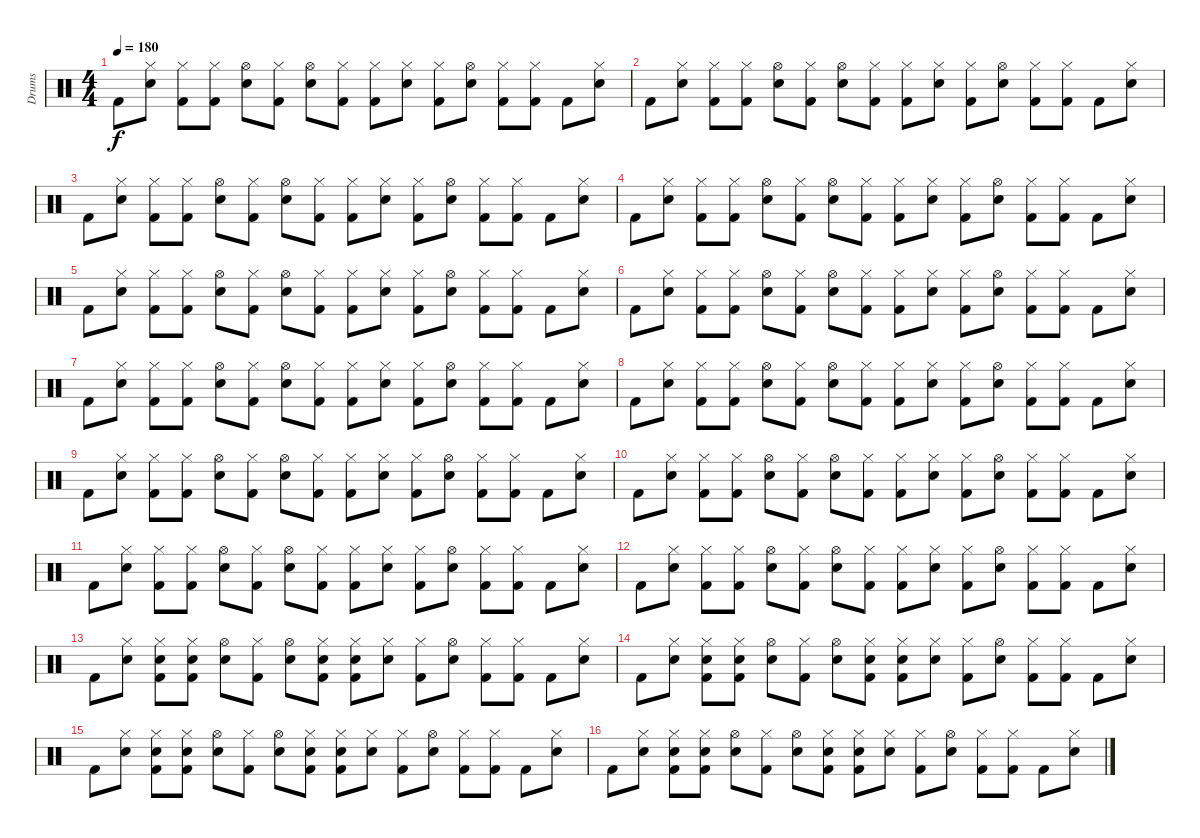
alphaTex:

\track ("Drums" "Drums") {instrument percussion}
\staff {score}
\articulation defaults
\ts (4 4)
\tempo 180
\clef neutral
\ks c "Kick (hit) 2".8{dy f}
("Electric Snare (hit)" "Hi-Hat (closed)").8 ("Kick (hit) 2" "Hi-Hat (closed)").8 ("Kick (hit) 2" "Hi-Hat (closed)").8 ("Electric Snare (hit)" "Hi-Hat (open)").8 ("Kick (hit) 2" "Hi-Hat (closed)").8 ("Electric Snare (hit)" "Hi-Hat (open)").8 ("Kick (hit) 2" "Hi-Hat (closed)").8 ("Kick (hit) 2" "Hi-Hat (closed)").8 ("Electric Snare (hit)" "Hi-Hat (closed)").8 ("Kick (hit) 2" "Hi-Hat (closed)").8 ("Electric Snare (hit)" "Hi-Hat (open)").8 ("Kick (hit) 2" "Hi-Hat (closed)").8 ("Kick (hit) 2" "Hi-Hat (closed)").8 "Kick (hit) 2".8 ("Electric Snare (hit)" "Hi-Hat (closed)").8 |
"Kick (hit) 2".8 ("Electric Snare (hit)" "Hi-Hat (closed)").8 ("Kick (hit) 2" "Hi-Hat (closed)").8 ("Kick (hit) 2" "Hi-Hat (closed)").8 ("Electric Snare (hit)" "Hi-Hat (open)").8 ("Kick (hit) 2" "Hi-Hat (closed)").8 ("Electric Snare (hit)" "Hi-Hat (open)").8 ("Kick (hit) 2" "Hi-Hat (closed)").8 ("Kick (hit) 2" "Hi-Hat (closed)").8 ("Electric Snare (hit)" "Hi-Hat (closed)").8 ("Kick (hit) 2" "Hi-Hat (closed)").8 ("Electric Snare (hit)" "Hi-Hat (open)").8 ("Kick (hit) 2" "Hi-Hat (closed)").8 ("Kick (hit) 2" "Hi-Hat (closed)").8 "Kick (hit) 2".8 ("Electric Snare (hit)" "Hi-Hat (closed)").8 |
"Kick (hit) 2".8 ("Electric Snare (hit)" "Hi-Hat (closed)").8 ("Kick (hit) 2" "Hi-Hat (closed)").8 ("Kick (hit) 2" "Hi-Hat (closed)").8 ("Electric Snare (hit)" "Hi-Hat (open)").8 ("Kick (hit) 2" "Hi-Hat (closed)").8 ("Electric Snare (hit)" "Hi-Hat (open)").8 ("Kick (hit) 2" "Hi-Hat (closed)").8 ("Kick (hit) 2" "Hi-Hat (closed)").8 ("Electric Snare (hit)" "Hi-Hat (closed)").8 ("Kick (hit) 2" "Hi-Hat (closed)").8 ("Electric Snare (hit)" "Hi-Hat (open)").8 ("Kick (hit) 2" "Hi-Hat (closed)").8 ("Kick (hit) 2" "Hi-Hat (closed)").8 "Kick (hit) 2".8 ("Electric Snare (hit)" "Hi-Hat (closed)").8 |
"Kick (hit) 2".8 ("Electric Snare (hit)" "Hi-Hat (closed)").8 ("Kick (hit) 2" "Hi-Hat (closed)").8 ("Kick (hit) 2" "Hi-Hat (closed)").8 ("Electric Snare (hit)" "Hi-Hat (open)").8 ("Kick (hit) 2" "Hi-Hat (closed)").8 ("Electric Snare (hit)" "Hi-Hat (open)").8 ("Kick (hit) 2" "Hi-Hat (closed)").8 ("Kick (hit) 2" "Hi-Hat (closed)").8 ("Electric Snare (hit)" "Hi-Hat (closed)").8 ("Kick (hit) 2" "Hi-Hat (closed)").8 ("Electric Snare (hit)" "Hi-Hat (open)").8 ("Kick (hit) 2" "Hi-Hat (closed)").8 ("Kick (hit) 2" "Hi-Hat (closed)").8 "Kick (hit) 2".8 ("Electric Snare (hit)" "Hi-Hat (closed)").8 |
"Kick (hit) 2".8 ("Electric Snare (hit)" "Hi-Hat (closed)").8 ("Kick (hit) 2" "Hi-Hat (closed)").8 ("Kick (hit) 2" "Hi-Hat (closed)").8 ("Electric Snare (hit)" "Hi-Hat (open)").8 ("Kick (hit) 2" "Hi-Hat (closed)").8 ("Electric Snare (hit)" "Hi-Hat (open)").8 ("Kick (hit) 2" "Hi-Hat (closed)").8 ("Kick (hit) 2" "Hi-Hat (closed)").8 ("Electric Snare (hit)" "Hi-Hat (closed)").8 ("Kick (hit) 2" "Hi-Hat (closed)").8 ("Electric Snare (hit)" "Hi-Hat (open)").8 ("Kick (hit) 2" "Hi-Hat (closed)").8 ("Kick (hit) 2" "Hi-Hat (closed)").8 "Kick (hit) 2".8 ("Electric Snare (hit)" "Hi-Hat (closed)").8 |
"Kick (hit) 2".8 ("Electric Snare (hit)" "Hi-Hat (closed)").8 ("Kick (hit) 2" "Hi-Hat (closed)").8 ("Kick (hit) 2" "Hi-Hat (closed)").8 ("Electric Snare (hit)" "Hi-Hat (open)").8 ("Kick (hit) 2" "Hi-Hat (closed)").8 ("Electric Snare (hit)" "Hi-Hat (open)").8 ("Kick (hit) 2" "Hi-Hat (closed)").8 ("Kick (hit) 2" "Hi-Hat (closed)").8 ("Electric Snare (hit)" "Hi-Hat (closed)").8 ("Kick (hit) 2" "Hi-Hat (closed)").8 ("Electric Snare (hit)" "Hi-Hat (open)").8 ("Kick (hit) 2" "Hi-Hat (closed)").8 ("Kick (hit) 2" "Hi-Hat (closed)").8 "Kick (hit) 2".8 ("Electric Snare (hit)" "Hi-Hat (closed)").8 |
"Kick (hit) 2".8 ("Electric Snare (hit)" "Hi-Hat (closed)").8 ("Kick (hit) 2" "Hi-Hat (closed)").8 ("Kick (hit) 2" "Hi-Hat (closed)").8 ("Electric Snare (hit)" "Hi-Hat (open)").8 ("Kick (hit) 2" "Hi-Hat (closed)").8 ("Electric Snare (hit)" "Hi-Hat (open)").8 ("Kick (hit) 2" "Hi-Hat (closed)").8 ("Kick (hit) 2" "Hi-Hat (closed)").8 ("Electric Snare (hit)" "Hi-Hat (closed)").8 ("Kick (hit) 2" "Hi-Hat (closed)").8 ("Electric Snare (hit)" "Hi-Hat (open)").8 ("Kick (hit) 2" "Hi-Hat (closed)").8 ("Kick (hit) 2" "Hi-Hat (closed)").8 "Kick (hit) 2".8 ("Electric Snare (hit)" "Hi-Hat (closed)").8 |
"Kick (hit) 2".8 ("Electric Snare (hit)" "Hi-Hat (closed)").8 ("Kick (hit) 2" "Hi-Hat (closed)").8 ("Kick (hit) 2" "Hi-Hat (closed)").8 ("Electric Snare (hit)" "Hi-Hat (open)").8 ("Kick (hit) 2" "Hi-Hat (closed)").8 ("Electric Snare (hit)" "Hi-Hat (open)").8 ("Kick (hit) 2" "Hi-Hat (closed)").8 ("Kick (hit) 2" "Hi-Hat (closed)").8 ("Electric Snare (hit)" "Hi-Hat (closed)").8 ("Kick (hit) 2" "Hi-Hat (closed)").8 ("Electric Snare (hit)" "Hi-Hat (open)").8 ("Kick (hit) 2" "Hi-Hat (closed)").8 ("Kick (hit) 2" "Hi-Hat (closed)").8 "Kick (hit) 2".8 ("Electric Snare (hit)" "Hi-Hat (closed)").8 |
"Kick (hit) 2".8 ("Electric Snare (hit)" "Hi-Hat (closed)").8 ("Kick (hit) 2" "Hi-Hat (closed)").8 ("Kick (hit) 2" "Hi-Hat (closed)").8 ("Electric Snare (hit)" "Hi-Hat (open)").8 ("Kick (hit) 2" "Hi-Hat (closed)").8 ("Electric Snare (hit)" "Hi-Hat (open)").8 ("Kick (hit) 2" "Hi-Hat (closed)").8 ("Kick (hit) 2" "Hi-Hat (closed)").8 ("Electric Snare (hit)" "Hi-Hat (closed)").8 ("Kick (hit) 2" "Hi-Hat (closed)").8 ("Electric Snare (hit)" "Hi-Hat (open)").8 ("Kick (hit) 2" "Hi-Hat (closed)").8 ("Kick (hit) 2" "Hi-Hat (closed)").8 "Kick (hit) 2".8 ("Electric Snare (hit)" "Hi-Hat (closed)").8 |
"Kick (hit) 2".8 ("Electric Snare (hit)" "Hi-Hat (closed)").8 ("Kick (hit) 2" "Hi-Hat (closed)").8 ("Kick (hit) 2" "Hi-Hat (closed)").8 ("Electric Snare (hit)" "Hi-Hat (open)").8 ("Kick (hit) 2" "Hi-Hat (closed)").8 ("Electric Snare (hit)" "Hi-Hat (open)").8 ("Kick (hit) 2" "Hi-Hat (closed)").8 ("Kick (hit) 2" "Hi-Hat (closed)").8 ("Electric Snare (hit)" "Hi-Hat (closed)").8 ("Kick (hit) 2" "Hi-Hat (closed)").8 ("Electric Snare (hit)" "Hi-Hat (open)").8 ("Kick (hit) 2" "Hi-Hat (closed)").8 ("Kick (hit) 2" "Hi-Hat (closed)").8 "Kick (hit) 2".8 ("Electric Snare (hit)" "Hi-Hat (closed)").8 |
"Kick (hit) 2".8 ("Electric Snare (hit)" "Hi-Hat (closed)").8 ("Kick (hit) 2" "Hi-Hat (closed)").8 ("Kick (hit) 2" "Hi-Hat (closed)").8 ("Electric Snare (hit)" "Hi-Hat (open)").8 ("Kick (hit) 2" "Hi-Hat (closed)").8 ("Electric Snare (hit)" "Hi-Hat (open)").8 ("Kick (hit) 2" "Hi-Hat (closed)").8 ("Kick (hit) 2" "Hi-Hat (closed)").8 ("Electric Snare (hit)" "Hi-Hat (closed)").8 ("Kick (hit) 2" "Hi-Hat (closed)").8 ("Electric Snare (hit)" "Hi-Hat (open)").8 ("Kick (hit) 2" "Hi-Hat (closed)").8 ("Kick (hit) 2" "Hi-Hat (closed)").8 "Kick (hit) 2".8 ("Electric Snare (hit)" "Hi-Hat (closed)").8 |
"Kick (hit) 2".8 ("Electric Snare (hit)" "Hi-Hat (closed)").8 ("Kick (hit) 2" "Hi-Hat (closed)").8 ("Kick (hit) 2" "Hi-Hat (closed)").8 ("Electric Snare (hit)" "Hi-Hat (open)").8 ("Kick (hit) 2" "Hi-Hat (closed)").8 ("Electric Snare (hit)" "Hi-Hat (open)").8 ("Kick (hit) 2" "Hi-Hat (closed)").8 ("Kick (hit) 2" "Hi-Hat (closed)").8 ("Electric Snare (hit)" "Hi-Hat (closed)").8 ("Kick (hit) 2" "Hi-Hat (closed)").8 ("Electric Snare (hit)" "Hi-Hat (open)").8 ("Kick (hit) 2" "Hi-Hat (closed)").8 ("Kick (hit) 2" "Hi-Hat (closed)").8 "Kick (hit) 2".8 ("Electric Snare (hit)" "Hi-Hat (closed)").8 |
"Kick (hit) 2".8 ("Electric Snare (hit)" "Hi-Hat (closed)").8 ("Kick (hit) 2" "Electric Snare (hit)" "Hi-Hat (closed)").8 ("Kick (hit) 2" "Electric Snare (hit)" "Hi-Hat (closed)").8 ("Electric Snare (hit)" "Hi-Hat (open)").8 ("Kick (hit) 2" "Hi-Hat (closed)").8 ("Electric Snare (hit)" "Hi-Hat (open)").8 ("Kick (hit) 2" "Electric Snare (hit)" "Hi-Hat (closed)").8 ("Kick (hit) 2" "Electric Snare (hit)" "Hi-Hat (closed)").8 ("Electric Snare (hit)" "Hi-Hat (closed)").8 ("Kick (hit) 2" "Hi-Hat (closed)").8 ("Electric Snare (hit)" "Hi-Hat (open)").8 ("Kick (hit) 2" "Hi-Hat (closed)").8 ("Kick (hit) 2" "Hi-Hat (closed)").8 "Kick (hit) 2".8 ("Electric Snare (hit)" "Hi-Hat (closed)").8 |
"Kick (hit) 2".8 ("Electric Snare (hit)" "Hi-Hat (closed)").8 ("Kick (hit) 2" "Electric Snare (hit)" "Hi-Hat (closed)").8 ("Kick (hit) 2" "Electric Snare (hit)" "Hi-Hat (closed)").8 ("Electric Snare (hit)" "Hi-Hat (open)").8 ("Kick (hit) 2" "Hi-Hat (closed)").8 ("Electric Snare (hit)" "Hi-Hat (open)").8 ("Kick (hit) 2" "Electric Snare (hit)" "Hi-Hat (closed)").8 ("Kick (hit) 2" "Electric Snare (hit)" "Hi-Hat (closed)").8 ("Electric Snare (hit)" "Hi-Hat (closed)").8 ("Kick (hit) 2" "Hi-Hat (closed)").8 ("Electric Snare (hit)" "Hi-Hat (open)").8 ("Kick (hit) 2" "Hi-Hat (closed)").8 ("Kick (hit) 2" "Hi-Hat (closed)").8 "Kick (hit) 2".8 ("Electric Snare (hit)" "Hi-Hat (closed)").8 |
"Kick (hit) 2".8 ("Electric Snare (hit)" "Hi-Hat (closed)").8 ("Kick (hit) 2" "Electric Snare (hit)" "Hi-Hat (closed)").8 ("Kick (hit) 2" "Electric Snare (hit)" "Hi-Hat (closed)").8 ("Electric Snare (hit)" "Hi-Hat (open)").8 ("Kick (hit) 2" "Hi-Hat (closed)").8 ("Electric Snare (hit)" "Hi-Hat (open)").8 ("Kick (hit) 2" "Electric Snare (hit)" "Hi-Hat (closed)").8 ("Kick (hit) 2" "Electric Snare (hit)" "Hi-Hat (closed)").8 ("Electric Snare (hit)" "Hi-Hat (closed)").8 ("Kick (hit) 2" "Hi-Hat (closed)").8 ("Electric Snare (hit)" "Hi-Hat (open)").8 ("Kick (hit) 2" "Hi-Hat (closed)").8 ("Kick (hit) 2" "Hi-Hat (closed)").8 "Kick (hit) 2".8 ("Electric Snare (hit)" "Hi-Hat (closed)").8 |
"Kick (hit) 2".8 ("Electric Snare (hit)" "Hi-Hat (closed)").8 ("Kick (hit) 2" "Electric Snare (hit)" "Hi-Hat (closed)").8 ("Kick (hit) 2" "Electric Snare (hit)" "Hi-Hat (closed)").8 ("Electric Snare (hit)" "Hi-Hat (open)").8 ("Kick (hit) 2" "Hi-Hat (closed)").8 ("Electric Snare (hit)" "Hi-Hat (open)").8 ("Kick (hit) 2" "Electric Snare (hit)" "Hi-Hat (closed)").8 ("Kick (hit) 2" "Electric Snare (hit)" "Hi-Hat (closed)").8 ("Electric Snare (hit)" "Hi-Hat (closed)").8 ("Kick (hit) 2" "Hi-Hat (closed)").8 ("Electric Snare (hit)" "Hi-Hat (open)").8 ("Kick (hit) 2" "Hi-Hat (closed)").8 ("Kick (hit) 2" "Hi-Hat (closed)").8 "Kick (hit) 2".8 ("Electric Snare (hit)" "Hi-Hat (closed)").8
